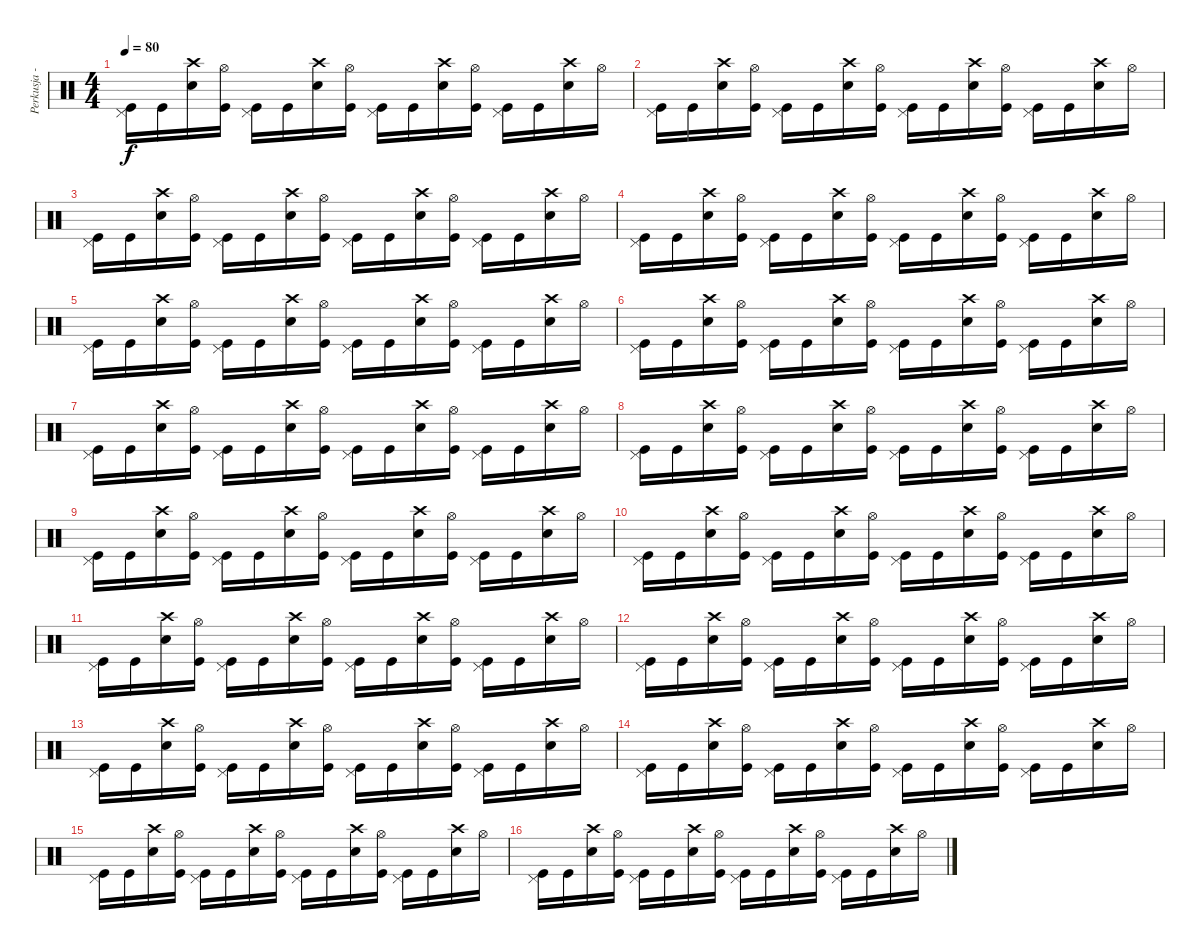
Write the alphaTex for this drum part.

\track ("Perkusja - Krzyzyk" "Perkusja -") {instrument percussion}
\staff {score}
\articulation defaults
\ts (4 4)
\tempo 80
\clef neutral
\ks c
("Pedal Hi-Hat (hit)" "Kick (hit)").16{dy f} "Kick (hit)".16 ("Crash high (hit)" "Snare (hit) 2").16 ("Hi-Hat (open)" "Kick (hit)").16 ("Pedal Hi-Hat (hit)" "Kick (hit)").16 "Kick (hit)".16 ("Crash high (hit)" "Snare (hit) 2").16 ("Hi-Hat (open)" "Kick (hit)").16 ("Pedal Hi-Hat (hit)" "Kick (hit)").16 "Kick (hit)".16 ("Crash high (hit)" "Snare (hit) 2").16 ("Hi-Hat (open)" "Kick (hit)").16 ("Pedal Hi-Hat (hit)" "Kick (hit)").16 "Kick (hit)".16 ("Crash high (hit)" "Snare (hit) 2").16 "Hi-Hat (open)".16 |
("Pedal Hi-Hat (hit)" "Kick (hit)").16 "Kick (hit)".16 ("Crash high (hit)" "Snare (hit) 2").16 ("Hi-Hat (open)" "Kick (hit)").16 ("Pedal Hi-Hat (hit)" "Kick (hit)").16 "Kick (hit)".16 ("Crash high (hit)" "Snare (hit) 2").16 ("Hi-Hat (open)" "Kick (hit)").16 ("Pedal Hi-Hat (hit)" "Kick (hit)").16 "Kick (hit)".16 ("Crash high (hit)" "Snare (hit) 2").16 ("Hi-Hat (open)" "Kick (hit)").16 ("Pedal Hi-Hat (hit)" "Kick (hit)").16 "Kick (hit)".16 ("Crash high (hit)" "Snare (hit) 2").16 "Hi-Hat (open)".16 |
("Pedal Hi-Hat (hit)" "Kick (hit)").16 "Kick (hit)".16 ("Crash high (hit)" "Snare (hit) 2").16 ("Hi-Hat (open)" "Kick (hit)").16 ("Pedal Hi-Hat (hit)" "Kick (hit)").16 "Kick (hit)".16 ("Crash high (hit)" "Snare (hit) 2").16 ("Hi-Hat (open)" "Kick (hit)").16 ("Pedal Hi-Hat (hit)" "Kick (hit)").16 "Kick (hit)".16 ("Crash high (hit)" "Snare (hit) 2").16 ("Hi-Hat (open)" "Kick (hit)").16 ("Pedal Hi-Hat (hit)" "Kick (hit)").16 "Kick (hit)".16 ("Crash high (hit)" "Snare (hit) 2").16 "Hi-Hat (open)".16 |
("Pedal Hi-Hat (hit)" "Kick (hit)").16 "Kick (hit)".16 ("Crash high (hit)" "Snare (hit) 2").16 ("Hi-Hat (open)" "Kick (hit)").16 ("Pedal Hi-Hat (hit)" "Kick (hit)").16 "Kick (hit)".16 ("Crash high (hit)" "Snare (hit) 2").16 ("Hi-Hat (open)" "Kick (hit)").16 ("Pedal Hi-Hat (hit)" "Kick (hit)").16 "Kick (hit)".16 ("Crash high (hit)" "Snare (hit) 2").16 ("Hi-Hat (open)" "Kick (hit)").16 ("Pedal Hi-Hat (hit)" "Kick (hit)").16 "Kick (hit)".16 ("Crash high (hit)" "Snare (hit) 2").16 "Hi-Hat (open)".16 |
("Pedal Hi-Hat (hit)" "Kick (hit)").16 "Kick (hit)".16 ("Crash high (hit)" "Snare (hit) 2").16 ("Hi-Hat (open)" "Kick (hit)").16 ("Pedal Hi-Hat (hit)" "Kick (hit)").16 "Kick (hit)".16 ("Crash high (hit)" "Snare (hit) 2").16 ("Hi-Hat (open)" "Kick (hit)").16 ("Pedal Hi-Hat (hit)" "Kick (hit)").16 "Kick (hit)".16 ("Crash high (hit)" "Snare (hit) 2").16 ("Hi-Hat (open)" "Kick (hit)").16 ("Pedal Hi-Hat (hit)" "Kick (hit)").16 "Kick (hit)".16 ("Crash high (hit)" "Snare (hit) 2").16 "Hi-Hat (open)".16 |
("Pedal Hi-Hat (hit)" "Kick (hit)").16 "Kick (hit)".16 ("Crash high (hit)" "Snare (hit) 2").16 ("Hi-Hat (open)" "Kick (hit)").16 ("Pedal Hi-Hat (hit)" "Kick (hit)").16 "Kick (hit)".16 ("Crash high (hit)" "Snare (hit) 2").16 ("Hi-Hat (open)" "Kick (hit)").16 ("Pedal Hi-Hat (hit)" "Kick (hit)").16 "Kick (hit)".16 ("Crash high (hit)" "Snare (hit) 2").16 ("Hi-Hat (open)" "Kick (hit)").16 ("Pedal Hi-Hat (hit)" "Kick (hit)").16 "Kick (hit)".16 ("Crash high (hit)" "Snare (hit) 2").16 "Hi-Hat (open)".16 |
("Pedal Hi-Hat (hit)" "Kick (hit)").16 "Kick (hit)".16 ("Crash high (hit)" "Snare (hit) 2").16 ("Hi-Hat (open)" "Kick (hit)").16 ("Pedal Hi-Hat (hit)" "Kick (hit)").16 "Kick (hit)".16 ("Crash high (hit)" "Snare (hit) 2").16 ("Hi-Hat (open)" "Kick (hit)").16 ("Pedal Hi-Hat (hit)" "Kick (hit)").16 "Kick (hit)".16 ("Crash high (hit)" "Snare (hit) 2").16 ("Hi-Hat (open)" "Kick (hit)").16 ("Pedal Hi-Hat (hit)" "Kick (hit)").16 "Kick (hit)".16 ("Crash high (hit)" "Snare (hit) 2").16 "Hi-Hat (open)".16 |
("Pedal Hi-Hat (hit)" "Kick (hit)").16 "Kick (hit)".16 ("Crash high (hit)" "Snare (hit) 2").16 ("Hi-Hat (open)" "Kick (hit)").16 ("Pedal Hi-Hat (hit)" "Kick (hit)").16 "Kick (hit)".16 ("Crash high (hit)" "Snare (hit) 2").16 ("Hi-Hat (open)" "Kick (hit)").16 ("Pedal Hi-Hat (hit)" "Kick (hit)").16 "Kick (hit)".16 ("Crash high (hit)" "Snare (hit) 2").16 ("Hi-Hat (open)" "Kick (hit)").16 ("Pedal Hi-Hat (hit)" "Kick (hit)").16 "Kick (hit)".16 ("Crash high (hit)" "Snare (hit) 2").16 "Hi-Hat (open)".16 |
("Pedal Hi-Hat (hit)" "Kick (hit)").16 "Kick (hit)".16 ("Crash high (hit)" "Snare (hit) 2").16 ("Hi-Hat (open)" "Kick (hit)").16 ("Pedal Hi-Hat (hit)" "Kick (hit)").16 "Kick (hit)".16 ("Crash high (hit)" "Snare (hit) 2").16 ("Hi-Hat (open)" "Kick (hit)").16 ("Pedal Hi-Hat (hit)" "Kick (hit)").16 "Kick (hit)".16 ("Crash high (hit)" "Snare (hit) 2").16 ("Hi-Hat (open)" "Kick (hit)").16 ("Pedal Hi-Hat (hit)" "Kick (hit)").16 "Kick (hit)".16 ("Crash high (hit)" "Snare (hit) 2").16 "Hi-Hat (open)".16 |
("Pedal Hi-Hat (hit)" "Kick (hit)").16 "Kick (hit)".16 ("Crash high (hit)" "Snare (hit) 2").16 ("Hi-Hat (open)" "Kick (hit)").16 ("Pedal Hi-Hat (hit)" "Kick (hit)").16 "Kick (hit)".16 ("Crash high (hit)" "Snare (hit) 2").16 ("Hi-Hat (open)" "Kick (hit)").16 ("Pedal Hi-Hat (hit)" "Kick (hit)").16 "Kick (hit)".16 ("Crash high (hit)" "Snare (hit) 2").16 ("Hi-Hat (open)" "Kick (hit)").16 ("Pedal Hi-Hat (hit)" "Kick (hit)").16 "Kick (hit)".16 ("Crash high (hit)" "Snare (hit) 2").16 "Hi-Hat (open)".16 |
("Pedal Hi-Hat (hit)" "Kick (hit)").16 "Kick (hit)".16 ("Crash high (hit)" "Snare (hit) 2").16 ("Hi-Hat (open)" "Kick (hit)").16 ("Pedal Hi-Hat (hit)" "Kick (hit)").16 "Kick (hit)".16 ("Crash high (hit)" "Snare (hit) 2").16 ("Hi-Hat (open)" "Kick (hit)").16 ("Pedal Hi-Hat (hit)" "Kick (hit)").16 "Kick (hit)".16 ("Crash high (hit)" "Snare (hit) 2").16 ("Hi-Hat (open)" "Kick (hit)").16 ("Pedal Hi-Hat (hit)" "Kick (hit)").16 "Kick (hit)".16 ("Crash high (hit)" "Snare (hit) 2").16 "Hi-Hat (open)".16 |
("Pedal Hi-Hat (hit)" "Kick (hit)").16 "Kick (hit)".16 ("Crash high (hit)" "Snare (hit) 2").16 ("Hi-Hat (open)" "Kick (hit)").16 ("Pedal Hi-Hat (hit)" "Kick (hit)").16 "Kick (hit)".16 ("Crash high (hit)" "Snare (hit) 2").16 ("Hi-Hat (open)" "Kick (hit)").16 ("Pedal Hi-Hat (hit)" "Kick (hit)").16 "Kick (hit)".16 ("Crash high (hit)" "Snare (hit) 2").16 ("Hi-Hat (open)" "Kick (hit)").16 ("Pedal Hi-Hat (hit)" "Kick (hit)").16 "Kick (hit)".16 ("Crash high (hit)" "Snare (hit) 2").16 "Hi-Hat (open)".16 |
("Pedal Hi-Hat (hit)" "Kick (hit)").16 "Kick (hit)".16 ("Crash high (hit)" "Snare (hit) 2").16 ("Hi-Hat (open)" "Kick (hit)").16 ("Pedal Hi-Hat (hit)" "Kick (hit)").16 "Kick (hit)".16 ("Crash high (hit)" "Snare (hit) 2").16 ("Hi-Hat (open)" "Kick (hit)").16 ("Pedal Hi-Hat (hit)" "Kick (hit)").16 "Kick (hit)".16 ("Crash high (hit)" "Snare (hit) 2").16 ("Hi-Hat (open)" "Kick (hit)").16 ("Pedal Hi-Hat (hit)" "Kick (hit)").16 "Kick (hit)".16 ("Crash high (hit)" "Snare (hit) 2").16 "Hi-Hat (open)".16 |
("Pedal Hi-Hat (hit)" "Kick (hit)").16 "Kick (hit)".16 ("Crash high (hit)" "Snare (hit) 2").16 ("Hi-Hat (open)" "Kick (hit)").16 ("Pedal Hi-Hat (hit)" "Kick (hit)").16 "Kick (hit)".16 ("Crash high (hit)" "Snare (hit) 2").16 ("Hi-Hat (open)" "Kick (hit)").16 ("Pedal Hi-Hat (hit)" "Kick (hit)").16 "Kick (hit)".16 ("Crash high (hit)" "Snare (hit) 2").16 ("Hi-Hat (open)" "Kick (hit)").16 ("Pedal Hi-Hat (hit)" "Kick (hit)").16 "Kick (hit)".16 ("Crash high (hit)" "Snare (hit) 2").16 "Hi-Hat (open)".16 |
("Pedal Hi-Hat (hit)" "Kick (hit)").16 "Kick (hit)".16 ("Crash high (hit)" "Snare (hit) 2").16 ("Hi-Hat (open)" "Kick (hit)").16 ("Pedal Hi-Hat (hit)" "Kick (hit)").16 "Kick (hit)".16 ("Crash high (hit)" "Snare (hit) 2").16 ("Hi-Hat (open)" "Kick (hit)").16 ("Pedal Hi-Hat (hit)" "Kick (hit)").16 "Kick (hit)".16 ("Crash high (hit)" "Snare (hit) 2").16 ("Hi-Hat (open)" "Kick (hit)").16 ("Pedal Hi-Hat (hit)" "Kick (hit)").16 "Kick (hit)".16 ("Crash high (hit)" "Snare (hit) 2").16 "Hi-Hat (open)".16 |
("Pedal Hi-Hat (hit)" "Kick (hit)").16 "Kick (hit)".16 ("Crash high (hit)" "Snare (hit) 2").16 ("Hi-Hat (open)" "Kick (hit)").16 ("Pedal Hi-Hat (hit)" "Kick (hit)").16 "Kick (hit)".16 ("Crash high (hit)" "Snare (hit) 2").16 ("Hi-Hat (open)" "Kick (hit)").16 ("Pedal Hi-Hat (hit)" "Kick (hit)").16 "Kick (hit)".16 ("Crash high (hit)" "Snare (hit) 2").16 ("Hi-Hat (open)" "Kick (hit)").16 ("Pedal Hi-Hat (hit)" "Kick (hit)").16 "Kick (hit)".16 ("Crash high (hit)" "Snare (hit) 2").16 "Hi-Hat (open)".16
